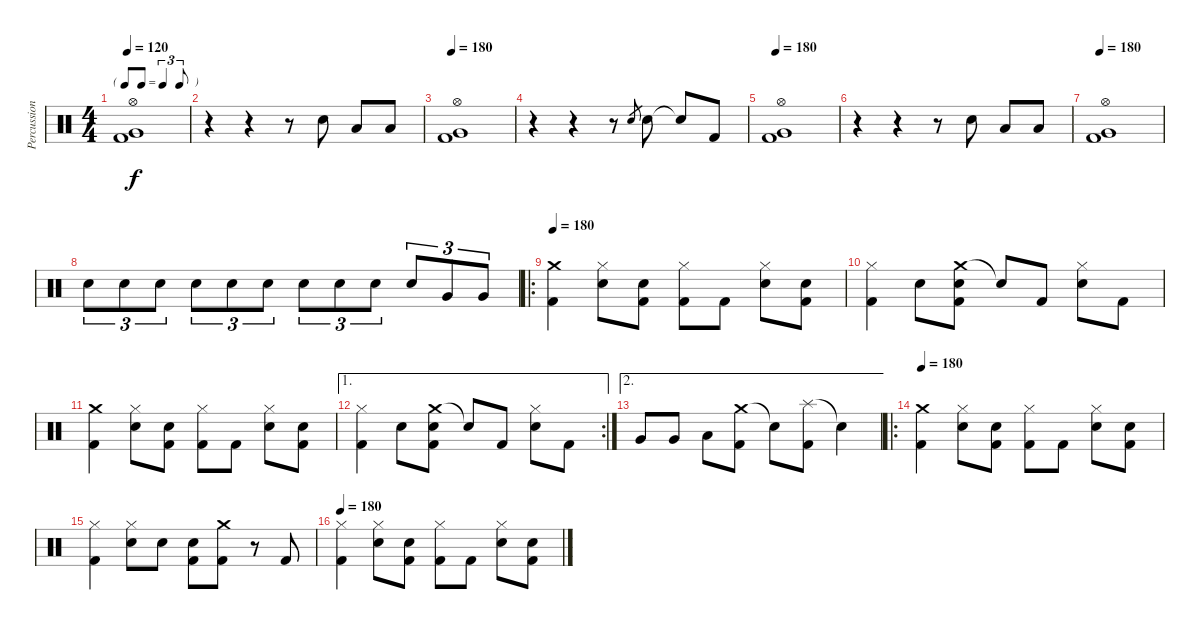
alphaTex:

\track ("Percussions" "Percussion") {instrument percussion}
\staff {score}
\articulation defaults
\ts (4 4)
\tf triplet8th
\tempo 120
\tempo 180
\tempo 120
\clef neutral
\ks c
("Hi-Hat (open)" "Very Low Tom (hit)" "Kick (hit) 2").1{dy f} |
r.4 r.4 r.8 "Electric Snare (hit)".8 "Low Floor Tom (hit)".8 "Low Floor Tom (hit)".8 |
\tempo 180
("Hi-Hat (open)" "Very Low Tom (hit)" "Kick (hit) 2").1 |
r.4 r.4 r.8 "Electric Snare (hit)".8{gr} "Electric Snare (hit)".8 "Snare (hit)"{t}.8 "Kick (hit) 2".8 |
\tempo 180
("Hi-Hat (open)" "Very Low Tom (hit)" "Kick (hit) 2").1 |
r.4 r.4 r.8 "Electric Snare (hit)".8 "Low Floor Tom (hit)".8 "Low Floor Tom (hit)".8 |
\tempo 180
("Hi-Hat (open)" "Very Low Tom (hit)" "Kick (hit) 2").1 |
"Electric Snare (hit)".8{tu (3 2)} "Electric Snare (hit)".8{tu (3 2)} "Electric Snare (hit)".8{tu (3 2)} "Electric Snare (hit)".8{tu (3 2)} "Electric Snare (hit)".8{tu (3 2)} "Electric Snare (hit)".8{tu (3 2)} "Electric Snare (hit)".8{tu (3 2)} "Electric Snare (hit)".8{tu (3 2)} "Electric Snare (hit)".8{tu (3 2)} "Electric Snare (hit)".8{tu (3 2)} "Very Low Tom (hit)".8{tu (3 2)} "Very Low Tom (hit)".8{tu (3 2)} |
\ro
\tempo 180
("Crash medium (hit)" "Kick (hit) 2").4 ("Hi-Hat (closed)" "Electric Snare (hit)").8 ("Electric Snare (hit)" "Kick (hit) 2").8 ("Hi-Hat (closed)" "Kick (hit) 2").8 "Kick (hit) 2".8 ("Hi-Hat (closed)" "Electric Snare (hit)").8 ("Electric Snare (hit)" "Kick (hit) 2").8 |
("Hi-Hat (closed)" "Kick (hit) 2").4 "Electric Snare (hit)".8 ("Crash medium (hit)" "Electric Snare (hit)" "Kick (hit) 2").8 "Snare (hit)"{t}.8 "Kick (hit) 2".8 ("Hi-Hat (closed)" "Electric Snare (hit)").8 "Kick (hit) 2".8 |
("Crash medium (hit)" "Kick (hit) 2").4 ("Hi-Hat (closed)" "Electric Snare (hit)").8 ("Electric Snare (hit)" "Kick (hit) 2").8 ("Hi-Hat (closed)" "Kick (hit) 2").8 "Kick (hit) 2".8 ("Hi-Hat (closed)" "Electric Snare (hit)").8 ("Electric Snare (hit)" "Kick (hit) 2").8 |
\ae 1
\rc 2
("Hi-Hat (closed)" "Kick (hit) 2").4 "Electric Snare (hit)".8 ("Crash medium (hit)" "Electric Snare (hit)" "Kick (hit) 2").8 "Snare (hit)"{t}.8 "Kick (hit) 2".8 ("Hi-Hat (closed)" "Electric Snare (hit)").8 "Kick (hit) 2".8 |
\ae 2 "Very Low Tom (hit)".8 "Very Low Tom (hit)".8 "Low Floor Tom (hit)".8
("Crash medium (hit)" "Kick (hit) 2").8 "Snare (hit)"{t}.8 ("Splash (hit)" "Kick (hit) 2").8 "Snare (hit)"{t}.4 |
\ro
\tempo 180
("Crash medium (hit)" "Kick (hit) 2").4 ("Hi-Hat (closed)" "Electric Snare (hit)").8 ("Electric Snare (hit)" "Kick (hit) 2").8 ("Hi-Hat (closed)" "Kick (hit) 2").8 "Kick (hit) 2".8 ("Hi-Hat (closed)" "Electric Snare (hit)").8 ("Electric Snare (hit)" "Kick (hit) 2").8 |
("Hi-Hat (closed)" "Kick (hit) 2").4 ("Hi-Hat (closed)" "Electric Snare (hit)").8 "Electric Snare (hit)".8 ("Electric Snare (hit)" "Kick (hit) 2").8 ("Crash medium (hit)" "Kick (hit) 2").8 r.8 "Kick (hit) 2".8 |
\tempo 180
("Hi-Hat (closed)" "Kick (hit) 2").4 ("Hi-Hat (closed)" "Electric Snare (hit)").8 ("Electric Snare (hit)" "Kick (hit) 2").8 ("Hi-Hat (closed)" "Kick (hit) 2").8 "Kick (hit) 2".8 ("Hi-Hat (closed)" "Electric Snare (hit)").8 ("Electric Snare (hit)" "Kick (hit) 2").8
